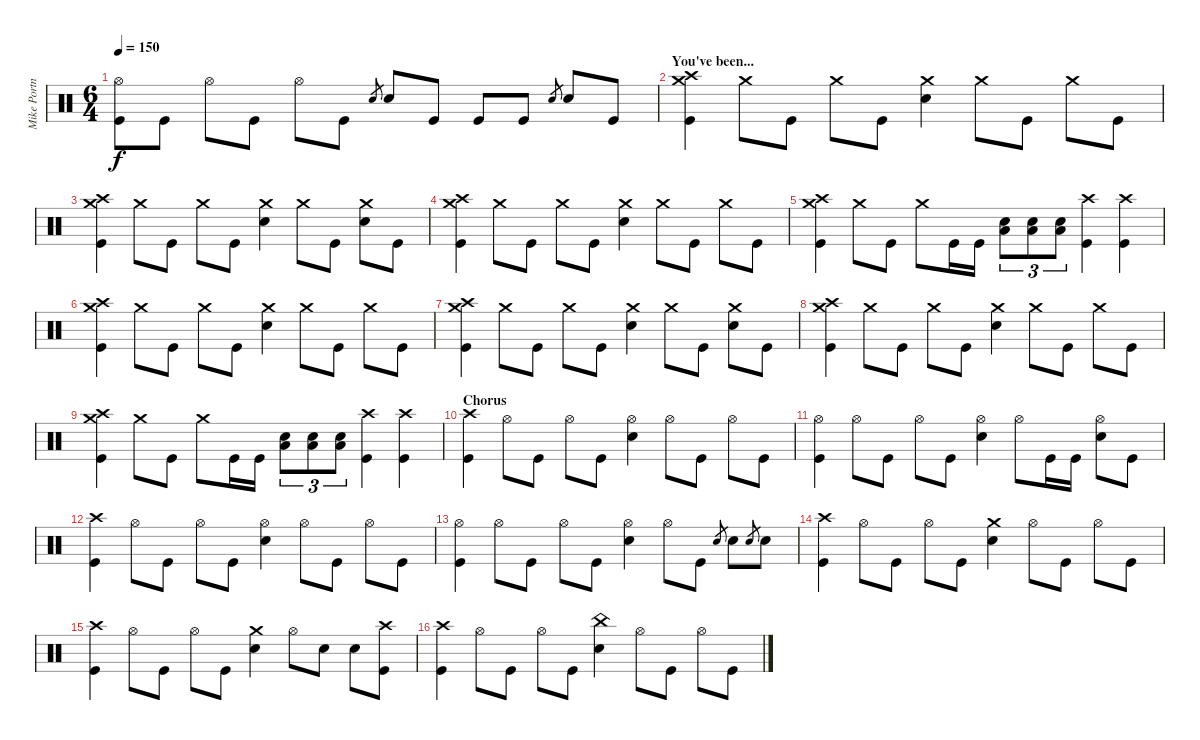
\track ("Mike Portnoy" "Mike Portn") {instrument percussion}
\staff {score}
\articulation defaults
\ts (6 4)
\tempo 150
\clef neutral
\ks c
("Hi-Hat (open)" "Kick (hit)").8{dy f} "Kick (hit)".8 "Hi-Hat (open)".8 "Kick (hit)".8 "Hi-Hat (open)".8 "Kick (hit)".8 "Electric Snare (hit)".8{gr} "Electric Snare (hit)".8 "Kick (hit)".8 "Kick (hit)".8 "Kick (hit)".8 "Electric Snare (hit)".8{gr} "Electric Snare (hit)".8 "Kick (hit)".8 |
\section ("" "You've been...")
("Crash high (hit)" "Crash medium (hit)" "Kick (hit)").4 "Crash medium (hit)".8 "Kick (hit)".8 "Crash medium (hit)".8 "Kick (hit)".8 ("Crash medium (hit)" "Electric Snare (hit)").4 "Crash medium (hit)".8 "Kick (hit)".8 "Crash medium (hit)".8 "Kick (hit)".8 |
("Crash high (hit)" "Crash medium (hit)" "Kick (hit)").4 "Crash medium (hit)".8 "Kick (hit)".8 "Crash medium (hit)".8 "Kick (hit)".8 ("Crash medium (hit)" "Electric Snare (hit)").4 "Crash medium (hit)".8 "Kick (hit)".8 ("Crash medium (hit)" "Electric Snare (hit)").8 "Kick (hit)".8 |
("Crash high (hit)" "Crash medium (hit)" "Kick (hit)").4 "Crash medium (hit)".8 "Kick (hit)".8 "Crash medium (hit)".8 "Kick (hit)".8 ("Crash medium (hit)" "Electric Snare (hit)").4 "Crash medium (hit)".8 "Kick (hit)".8 "Crash medium (hit)".8 "Kick (hit)".8 |
("Crash high (hit)" "Crash medium (hit)" "Kick (hit)").4 "Crash medium (hit)".8 "Kick (hit)".8 "Crash medium (hit)".8 "Kick (hit)".16 "Kick (hit)".16 ("Low Tom (hit)" "Electric Snare (hit)").8{tu (3 2)} ("Low Tom (hit)" "Electric Snare (hit)").8{tu (3 2)} ("Low Tom (hit)" "Electric Snare (hit)").8{tu (3 2)} ("Crash high (hit)" "Kick (hit)").4 ("Crash high (hit)" "Kick (hit)").4 |
("Crash high (hit)" "Crash medium (hit)" "Kick (hit)").4 "Crash medium (hit)".8 "Kick (hit)".8 "Crash medium (hit)".8 "Kick (hit)".8 ("Crash medium (hit)" "Electric Snare (hit)").4 "Crash medium (hit)".8 "Kick (hit)".8 "Crash medium (hit)".8 "Kick (hit)".8 |
("Crash high (hit)" "Crash medium (hit)" "Kick (hit)").4 "Crash medium (hit)".8 "Kick (hit)".8 "Crash medium (hit)".8 "Kick (hit)".8 ("Crash medium (hit)" "Electric Snare (hit)").4 "Crash medium (hit)".8 "Kick (hit)".8 ("Crash medium (hit)" "Electric Snare (hit)").8 "Kick (hit)".8 |
("Crash high (hit)" "Crash medium (hit)" "Kick (hit)").4 "Crash medium (hit)".8 "Kick (hit)".8 "Crash medium (hit)".8 "Kick (hit)".8 ("Crash medium (hit)" "Electric Snare (hit)").4 "Crash medium (hit)".8 "Kick (hit)".8 "Crash medium (hit)".8 "Kick (hit)".8 |
("Crash high (hit)" "Crash medium (hit)" "Kick (hit)").4 "Crash medium (hit)".8 "Kick (hit)".8 "Crash medium (hit)".8 "Kick (hit)".16 "Kick (hit)".16 ("Low Tom (hit)" "Electric Snare (hit)").8{tu (3 2)} ("Low Tom (hit)" "Electric Snare (hit)").8{tu (3 2)} ("Low Tom (hit)" "Electric Snare (hit)").8{tu (3 2)} ("Crash high (hit)" "Kick (hit)").4 ("Crash high (hit)" "Kick (hit)").4 |
\section ("" "Chorus")
("Crash high (hit)" "Kick (hit)").4 "Hi-Hat (open)".8 "Kick (hit)".8 "Hi-Hat (open)".8 "Kick (hit)".8 ("Hi-Hat (open)" "Electric Snare (hit)").4 "Hi-Hat (open)".8 "Kick (hit)".8 "Hi-Hat (open)".8 "Kick (hit)".8 |
("Hi-Hat (open)" "Kick (hit)").4 "Hi-Hat (open)".8 "Kick (hit)".8 "Hi-Hat (open)".8 "Kick (hit)".8 ("Hi-Hat (open)" "Electric Snare (hit)").4 "Hi-Hat (open)".8 "Kick (hit)".16 "Kick (hit)".16 ("Hi-Hat (open)" "Electric Snare (hit)").8 "Kick (hit)".8 |
("Crash high (hit)" "Kick (hit)").4 "Hi-Hat (open)".8 "Kick (hit)".8 "Hi-Hat (open)".8 "Kick (hit)".8 ("Hi-Hat (open)" "Electric Snare (hit)").4 "Hi-Hat (open)".8 "Kick (hit)".8 "Hi-Hat (open)".8 "Kick (hit)".8 |
("Hi-Hat (open)" "Kick (hit)").4 "Hi-Hat (open)".8 "Kick (hit)".8 "Hi-Hat (open)".8 "Kick (hit)".8 ("Hi-Hat (open)" "Electric Snare (hit)").4 "Hi-Hat (open)".8 "Kick (hit)".8 "Electric Snare (hit)".8{gr} "Electric Snare (hit)".8 "Electric Snare (hit)".8{gr} "Electric Snare (hit)".8 |
("Crash high (hit)" "Kick (hit)").4 "Hi-Hat (open)".8 "Kick (hit)".8 "Hi-Hat (open)".8 "Kick (hit)".8 ("Crash medium (hit)" "Electric Snare (hit)").4 "Hi-Hat (open)".8 "Kick (hit)".8 "Hi-Hat (open)".8 "Kick (hit)".8 |
("Crash high (hit)" "Kick (hit)").4 "Hi-Hat (open)".8 "Kick (hit)".8 "Hi-Hat (open)".8 "Kick (hit)".8 ("Crash medium (hit)" "Electric Snare (hit)").4 "Hi-Hat (open)".8 "Electric Snare (hit)".8 "Electric Snare (hit)".8 ("Crash high (hit)" "Kick (hit)").8 |
("Crash high (hit)" "Kick (hit)").4 "Hi-Hat (open)".8 "Kick (hit)".8 "Hi-Hat (open)".8 "Kick (hit)".8 ("China (hit)" "Electric Snare (hit)").4 "Hi-Hat (open)".8 "Kick (hit)".8 "Hi-Hat (open)".8 "Kick (hit)".8
